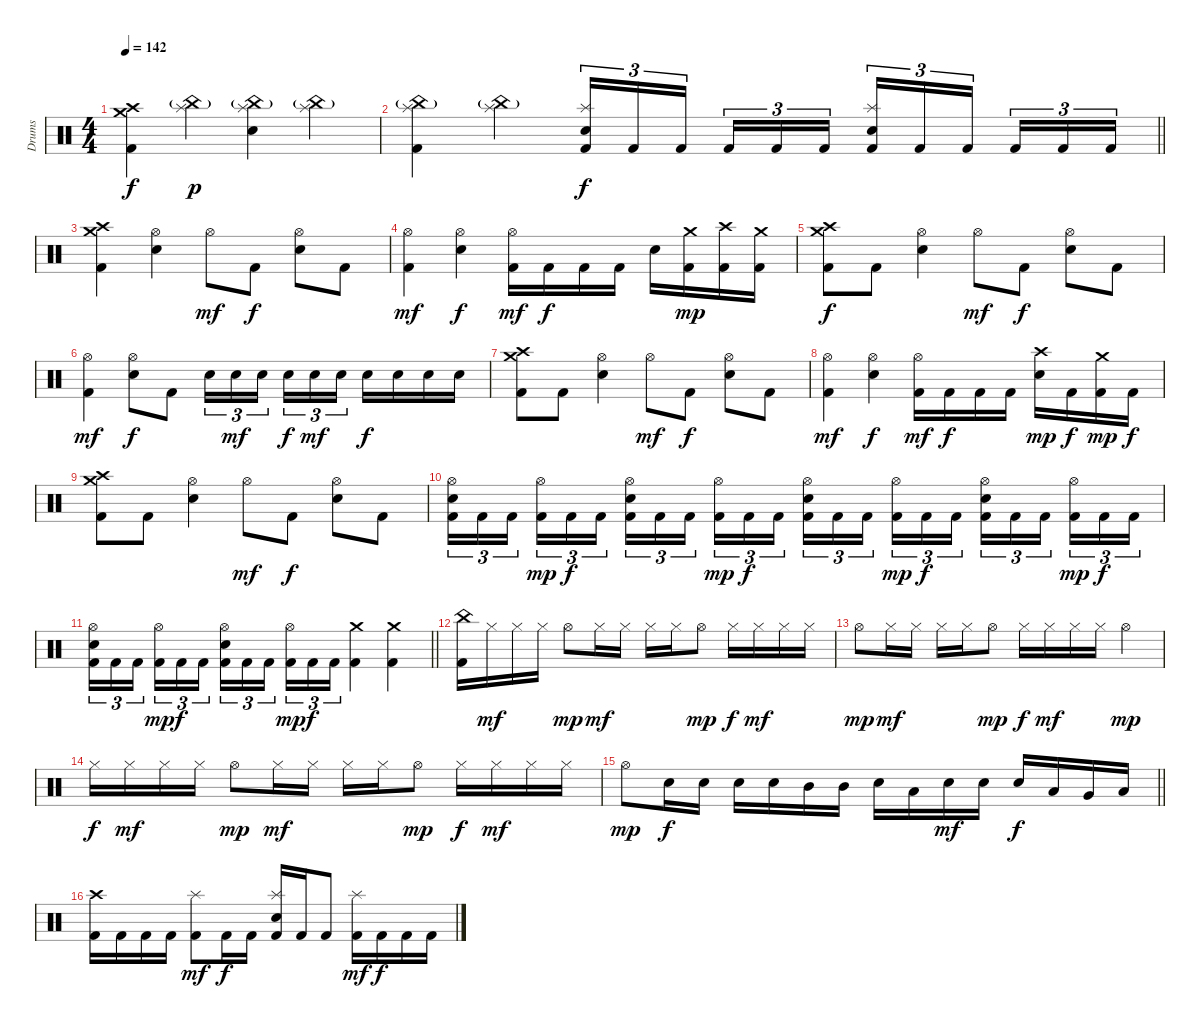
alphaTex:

\track ("Drums" "Drums") {instrument percussion}
\staff {score}
\articulation defaults
\ts (4 4)
\tempo 142
\clef neutral
\ks c
("Crash high (hit)" "Crash medium (hit)" "Kick (hit) 2").4{dy f} ("Splash (hit)" "China (hit)"{g}).4{dy p} ("Splash (hit)" "China (hit)"{g} "Electric Snare (hit)").4 ("Splash (hit)" "China (hit)"{g}).4 |
\barLineRight lightlight
("Splash (hit)" "China (hit)"{g} "Kick (hit) 2").4 ("Splash (hit)" "China (hit)"{g}).4 ("Splash (hit)" "Electric Snare (hit)" "Kick (hit) 2").16{tu (3 2) dy f} "Kick (hit) 2".16{tu (3 2)} "Kick (hit) 2".16{tu (3 2)} "Kick (hit) 2".16{tu (3 2)} "Kick (hit) 2".16{tu (3 2)} "Kick (hit) 2".16{tu (3 2)} ("Splash (hit)" "Electric Snare (hit)" "Kick (hit) 2").16{tu (3 2)} "Kick (hit) 2".16{tu (3 2)} "Kick (hit) 2".16{tu (3 2)} "Kick (hit) 2".16{tu (3 2)} "Kick (hit) 2".16{tu (3 2)} "Kick (hit) 2".16{tu (3 2)} |
("Crash high (hit)" "Crash medium (hit)" "Kick (hit) 2").4 ("Hi-Hat (open)" "Electric Snare (hit)").4 "Hi-Hat (open)".8{dy mf} "Kick (hit) 2".8{dy f} ("Hi-Hat (open)" "Electric Snare (hit)").8 "Kick (hit) 2".8 |
("Hi-Hat (open)" "Kick (hit) 2").4{dy mf} ("Hi-Hat (open)" "Electric Snare (hit)").4{dy f} ("Hi-Hat (open)" "Kick (hit) 2").16{dy mf} "Kick (hit) 2".16{dy f} "Kick (hit) 2".16 "Kick (hit) 2".16 "Electric Snare (hit)".16 ("Crash medium (hit)" "Kick (hit) 2").16{dy mp} ("Crash high (hit)" "Kick (hit) 2").16 ("Crash medium (hit)" "Kick (hit) 2").16 |
("Crash high (hit)" "Crash medium (hit)" "Kick (hit) 2").8{dy f} "Kick (hit) 2".8 ("Hi-Hat (open)" "Electric Snare (hit)").4 "Hi-Hat (open)".8{dy mf} "Kick (hit) 2".8{dy f} ("Hi-Hat (open)" "Electric Snare (hit)").8 "Kick (hit) 2".8 |
("Hi-Hat (open)" "Kick (hit) 2").4{dy mf} ("Hi-Hat (open)" "Electric Snare (hit)").8{dy f} "Kick (hit) 2".8 "Electric Snare (hit)".16{tu (3 2)} "Electric Snare (hit)".16{tu (3 2) dy mf} "Electric Snare (hit)".16{tu (3 2)} "Electric Snare (hit)".16{tu (3 2) dy f} "Electric Snare (hit)".16{tu (3 2) dy mf} "Electric Snare (hit)".16{tu (3 2)} "Electric Snare (hit)".16{dy f} "Electric Snare (hit)".16 "Electric Snare (hit)".16 "Electric Snare (hit)".16 |
("Crash high (hit)" "Crash medium (hit)" "Kick (hit) 2").8 "Kick (hit) 2".8 ("Hi-Hat (open)" "Electric Snare (hit)").4 "Hi-Hat (open)".8{dy mf} "Kick (hit) 2".8{dy f} ("Hi-Hat (open)" "Electric Snare (hit)").8 "Kick (hit) 2".8 |
("Hi-Hat (open)" "Kick (hit) 2").4{dy mf} ("Hi-Hat (open)" "Electric Snare (hit)").4{dy f} ("Hi-Hat (open)" "Kick (hit) 2").16{dy mf} "Kick (hit) 2".16{dy f} "Kick (hit) 2".16 "Kick (hit) 2".16 ("Crash high (hit)" "Electric Snare (hit)").16{dy mp} "Kick (hit) 2".16{dy f} ("Crash medium (hit)" "Kick (hit) 2").16{dy mp} "Kick (hit) 2".16{dy f} |
("Crash high (hit)" "Crash medium (hit)" "Kick (hit) 2").8 "Kick (hit) 2".8 ("Hi-Hat (open)" "Electric Snare (hit)").4 "Hi-Hat (open)".8{dy mf} "Kick (hit) 2".8{dy f} ("Hi-Hat (open)" "Electric Snare (hit)").8 "Kick (hit) 2".8 |
("Hi-Hat (open)" "Electric Snare (hit)" "Kick (hit) 2").16{tu (3 2)} "Kick (hit) 2".16{tu (3 2)} "Kick (hit) 2".16{tu (3 2)} ("Hi-Hat (open)" "Kick (hit) 2").16{tu (3 2) dy mp} "Kick (hit) 2".16{tu (3 2) dy f} "Kick (hit) 2".16{tu (3 2)} ("Hi-Hat (open)" "Electric Snare (hit)" "Kick (hit) 2").16{tu (3 2)} "Kick (hit) 2".16{tu (3 2)} "Kick (hit) 2".16{tu (3 2)} ("Hi-Hat (open)" "Kick (hit) 2").16{tu (3 2) dy mp} "Kick (hit) 2".16{tu (3 2) dy f} "Kick (hit) 2".16{tu (3 2)} ("Hi-Hat (open)" "Electric Snare (hit)" "Kick (hit) 2").16{tu (3 2)} "Kick (hit) 2".16{tu (3 2)} "Kick (hit) 2".16{tu (3 2)} ("Hi-Hat (open)" "Kick (hit) 2").16{tu (3 2) dy mp} "Kick (hit) 2".16{tu (3 2) dy f} "Kick (hit) 2".16{tu (3 2)} ("Hi-Hat (open)" "Electric Snare (hit)" "Kick (hit) 2").16{tu (3 2)} "Kick (hit) 2".16{tu (3 2)} "Kick (hit) 2".16{tu (3 2)} ("Hi-Hat (open)" "Kick (hit) 2").16{tu (3 2) dy mp} "Kick (hit) 2".16{tu (3 2) dy f} "Kick (hit) 2".16{tu (3 2)} |
\barLineRight lightlight
("Hi-Hat (open)" "Electric Snare (hit)" "Kick (hit) 2").16{tu (3 2)} "Kick (hit) 2".16{tu (3 2)} "Kick (hit) 2".16{tu (3 2)} ("Hi-Hat (open)" "Kick (hit) 2").16{tu (3 2) dy mp} "Kick (hit) 2".16{tu (3 2) dy f} "Kick (hit) 2".16{tu (3 2)} ("Hi-Hat (open)" "Electric Snare (hit)" "Kick (hit) 2").16{tu (3 2)} "Kick (hit) 2".16{tu (3 2)} "Kick (hit) 2".16{tu (3 2)} ("Hi-Hat (open)" "Kick (hit) 2").16{tu (3 2) dy mp} "Kick (hit) 2".16{tu (3 2) dy f} "Kick (hit) 2".16{tu (3 2)} ("Crash medium (hit)" "Kick (hit) 2").4 ("Crash medium (hit)" "Kick (hit) 2").4 |
("China (hit)" "Kick (hit) 2").16 "Hi-Hat (closed)".16{dy mf} "Hi-Hat (closed)".16 "Hi-Hat (closed)".16 "Hi-Hat (open)".8{dy mp} "Hi-Hat (closed)".16{dy mf} "Hi-Hat (closed)".16 "Hi-Hat (closed)".16 "Hi-Hat (closed)".16 "Hi-Hat (open)".8{dy mp} "Hi-Hat (closed)".16{dy f} "Hi-Hat (closed)".16{dy mf} "Hi-Hat (closed)".16 "Hi-Hat (closed)".16 |
"Hi-Hat (open)".8{dy mp} "Hi-Hat (closed)".16{dy mf} "Hi-Hat (closed)".16 "Hi-Hat (closed)".16 "Hi-Hat (closed)".16 "Hi-Hat (open)".8{dy mp} "Hi-Hat (closed)".16{dy f} "Hi-Hat (closed)".16{dy mf} "Hi-Hat (closed)".16 "Hi-Hat (closed)".16 "Hi-Hat (open)".4{dy mp} |
"Hi-Hat (closed)".16{dy f} "Hi-Hat (closed)".16{dy mf} "Hi-Hat (closed)".16 "Hi-Hat (closed)".16 "Hi-Hat (open)".8{dy mp} "Hi-Hat (closed)".16{dy mf} "Hi-Hat (closed)".16 "Hi-Hat (closed)".16 "Hi-Hat (closed)".16 "Hi-Hat (open)".8{dy mp} "Hi-Hat (closed)".16{dy f} "Hi-Hat (closed)".16{dy mf} "Hi-Hat (closed)".16 "Hi-Hat (closed)".16 |
\barLineRight lightlight "Hi-Hat (open)".8{dy mp} "Electric Snare (hit)".16{dy f} "Electric Snare (hit)".16 "Electric Snare (hit)".16 "Electric Snare (hit)".16 "Mid Tom (hit)".16 "Mid Tom (hit)".16 "Electric Snare (hit)".16 "Low Tom (hit)".16 "Electric Snare (hit)".16{dy mf} "Electric Snare (hit)".16 "Electric Snare (hit)".16{dy f} "Low Tom (hit)".16 "Very Low Tom (hit)".16 "Low Floor Tom (hit)".16
|
("Crash high (hit)" "Kick (hit) 2").16 "Kick (hit) 2".16 "Kick (hit) 2".16 "Kick (hit) 2".16 ("Splash (hit)" "Kick (hit) 2").8{dy mf} "Kick (hit) 2".16{dy f} "Kick (hit) 2".16 ("Splash (hit)" "Electric Snare (hit)" "Kick (hit) 2").16 "Kick (hit) 2".16 "Kick (hit) 2".8 ("Splash (hit)" "Kick (hit) 2").16{dy mf} "Kick (hit) 2".16{dy f} "Kick (hit) 2".16 "Kick (hit) 2".16
